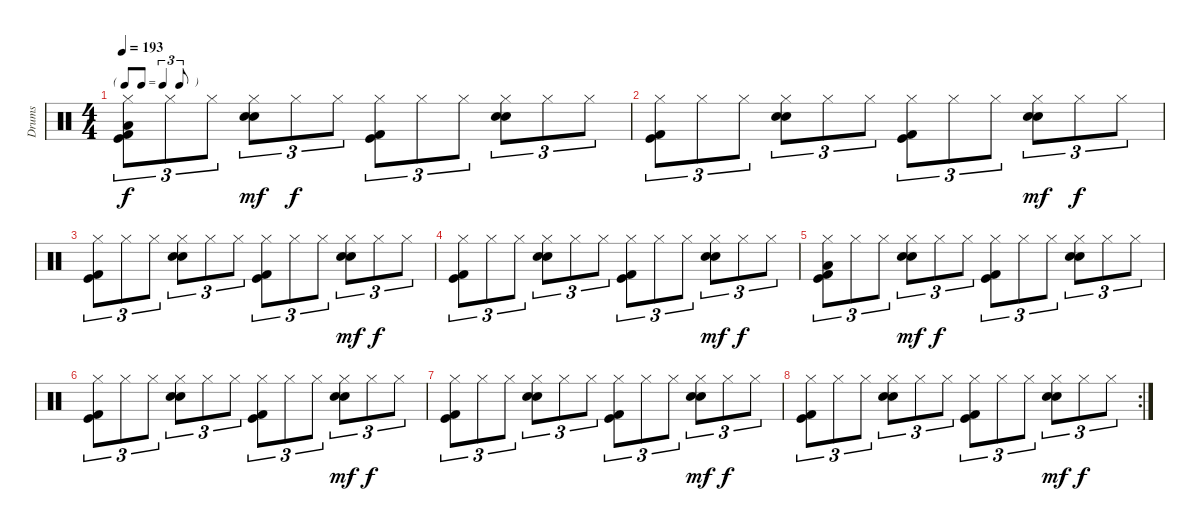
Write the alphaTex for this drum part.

\track ("Drums" "Drums") {instrument percussion}
\staff {score}
\articulation defaults
\ts (4 4)
\tf triplet8th
\tempo 193
\clef neutral
\ks c
("Hi-Hat (closed)" "Kick (hit) 2" "Kick (hit)" "Low Floor Tom (hit)").8{tu (3 2) dy f} "Hi-Hat (closed)".8{tu (3 2)} "Hi-Hat (closed)".8{tu (3 2)} ("Hi-Hat (closed)" "Electric Snare (hit)" "Snare (hit) 2").8{tu (3 2) dy mf} "Hi-Hat (closed)".8{tu (3 2) dy f} "Hi-Hat (closed)".8{tu (3 2)} ("Hi-Hat (closed)" "Kick (hit) 2" "Kick (hit)").8{tu (3 2)} "Hi-Hat (closed)".8{tu (3 2)} "Hi-Hat (closed)".8{tu (3 2)} ("Hi-Hat (closed)" "Snare (hit) 2" "Electric Snare (hit)").8{tu (3 2)} "Hi-Hat (closed)".8{tu (3 2)} "Hi-Hat (closed)".8{tu (3 2)} |
("Hi-Hat (closed)" "Kick (hit) 2" "Kick (hit)").8{tu (3 2)} "Hi-Hat (closed)".8{tu (3 2)} "Hi-Hat (closed)".8{tu (3 2)} ("Hi-Hat (closed)" "Snare (hit) 2" "Electric Snare (hit)").8{tu (3 2)} "Hi-Hat (closed)".8{tu (3 2)} "Hi-Hat (closed)".8{tu (3 2)} ("Hi-Hat (closed)" "Kick (hit)" "Kick (hit) 2").8{tu (3 2)} "Hi-Hat (closed)".8{tu (3 2)} "Hi-Hat (closed)".8{tu (3 2)} ("Hi-Hat (closed)" "Snare (hit) 2" "Electric Snare (hit)").8{tu (3 2) dy mf} "Hi-Hat (closed)".8{tu (3 2) dy f} "Hi-Hat (closed)".8{tu (3 2)} |
("Hi-Hat (closed)" "Kick (hit) 2" "Kick (hit)").8{tu (3 2)} "Hi-Hat (closed)".8{tu (3 2)} "Hi-Hat (closed)".8{tu (3 2)} ("Hi-Hat (closed)" "Snare (hit) 2" "Electric Snare (hit)").8{tu (3 2)} "Hi-Hat (closed)".8{tu (3 2)} "Hi-Hat (closed)".8{tu (3 2)} ("Hi-Hat (closed)" "Kick (hit)" "Kick (hit) 2").8{tu (3 2)} "Hi-Hat (closed)".8{tu (3 2)} "Hi-Hat (closed)".8{tu (3 2)} ("Hi-Hat (closed)" "Snare (hit) 2" "Electric Snare (hit)").8{tu (3 2) dy mf} "Hi-Hat (closed)".8{tu (3 2) dy f} "Hi-Hat (closed)".8{tu (3 2)} |
("Hi-Hat (closed)" "Kick (hit) 2" "Kick (hit)").8{tu (3 2)} "Hi-Hat (closed)".8{tu (3 2)} "Hi-Hat (closed)".8{tu (3 2)} ("Hi-Hat (closed)" "Snare (hit) 2" "Electric Snare (hit)").8{tu (3 2)} "Hi-Hat (closed)".8{tu (3 2)} "Hi-Hat (closed)".8{tu (3 2)} ("Hi-Hat (closed)" "Kick (hit)" "Kick (hit) 2").8{tu (3 2)} "Hi-Hat (closed)".8{tu (3 2)} "Hi-Hat (closed)".8{tu (3 2)} ("Hi-Hat (closed)" "Snare (hit) 2" "Electric Snare (hit)").8{tu (3 2) dy mf} "Hi-Hat (closed)".8{tu (3 2) dy f} "Hi-Hat (closed)".8{tu (3 2)} |
("Hi-Hat (closed)" "Kick (hit) 2" "Kick (hit)" "Low Floor Tom (hit)").8{tu (3 2)} "Hi-Hat (closed)".8{tu (3 2)} "Hi-Hat (closed)".8{tu (3 2)} ("Hi-Hat (closed)" "Electric Snare (hit)" "Snare (hit) 2").8{tu (3 2) dy mf} "Hi-Hat (closed)".8{tu (3 2) dy f} "Hi-Hat (closed)".8{tu (3 2)} ("Hi-Hat (closed)" "Kick (hit) 2" "Kick (hit)").8{tu (3 2)} "Hi-Hat (closed)".8{tu (3 2)} "Hi-Hat (closed)".8{tu (3 2)} ("Hi-Hat (closed)" "Snare (hit) 2" "Electric Snare (hit)").8{tu (3 2)} "Hi-Hat (closed)".8{tu (3 2)} "Hi-Hat (closed)".8{tu (3 2)} |
("Hi-Hat (closed)" "Kick (hit) 2" "Kick (hit)").8{tu (3 2)} "Hi-Hat (closed)".8{tu (3 2)} "Hi-Hat (closed)".8{tu (3 2)} ("Hi-Hat (closed)" "Snare (hit) 2" "Electric Snare (hit)").8{tu (3 2)} "Hi-Hat (closed)".8{tu (3 2)} "Hi-Hat (closed)".8{tu (3 2)} ("Hi-Hat (closed)" "Kick (hit)" "Kick (hit) 2").8{tu (3 2)} "Hi-Hat (closed)".8{tu (3 2)} "Hi-Hat (closed)".8{tu (3 2)} ("Hi-Hat (closed)" "Snare (hit) 2" "Electric Snare (hit)").8{tu (3 2) dy mf} "Hi-Hat (closed)".8{tu (3 2) dy f} "Hi-Hat (closed)".8{tu (3 2)} |
("Hi-Hat (closed)" "Kick (hit) 2" "Kick (hit)").8{tu (3 2)} "Hi-Hat (closed)".8{tu (3 2)} "Hi-Hat (closed)".8{tu (3 2)} ("Hi-Hat (closed)" "Snare (hit) 2" "Electric Snare (hit)").8{tu (3 2)} "Hi-Hat (closed)".8{tu (3 2)} "Hi-Hat (closed)".8{tu (3 2)} ("Hi-Hat (closed)" "Kick (hit)" "Kick (hit) 2").8{tu (3 2)} "Hi-Hat (closed)".8{tu (3 2)} "Hi-Hat (closed)".8{tu (3 2)} ("Hi-Hat (closed)" "Snare (hit) 2" "Electric Snare (hit)").8{tu (3 2) dy mf} "Hi-Hat (closed)".8{tu (3 2) dy f} "Hi-Hat (closed)".8{tu (3 2)} |
\rc 2
("Hi-Hat (closed)" "Kick (hit) 2" "Kick (hit)").8{tu (3 2)} "Hi-Hat (closed)".8{tu (3 2)} "Hi-Hat (closed)".8{tu (3 2)} ("Hi-Hat (closed)" "Snare (hit) 2" "Electric Snare (hit)").8{tu (3 2)} "Hi-Hat (closed)".8{tu (3 2)} "Hi-Hat (closed)".8{tu (3 2)} ("Hi-Hat (closed)" "Kick (hit)" "Kick (hit) 2").8{tu (3 2)} "Hi-Hat (closed)".8{tu (3 2)} "Hi-Hat (closed)".8{tu (3 2)} ("Hi-Hat (closed)" "Snare (hit) 2" "Electric Snare (hit)").8{tu (3 2) dy mf} "Hi-Hat (closed)".8{tu (3 2) dy f} "Hi-Hat (closed)".8{tu (3 2)}
